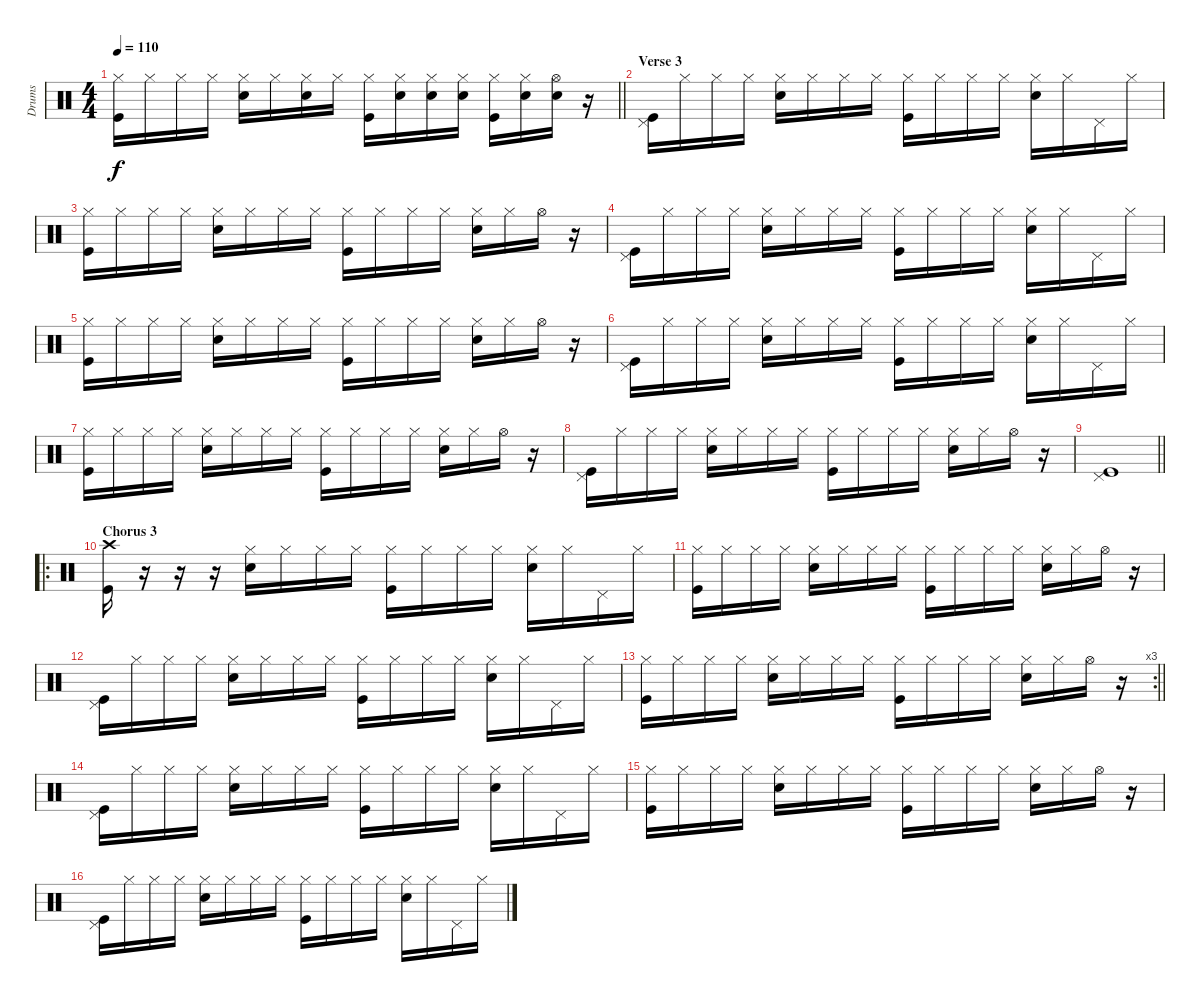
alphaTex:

\track ("Drums" "Drums") {instrument percussion}
\staff {score}
\articulation defaults
\ts (4 4)
\tempo 110
\clef neutral
\barLineRight lightlight
\ks c
("Hi-Hat (closed)" "Kick (hit)").16{dy f} "Hi-Hat (closed)".16 "Hi-Hat (closed)".16 "Hi-Hat (closed)".16 ("Hi-Hat (closed)" "Snare (hit) 2").16 "Hi-Hat (closed)".16 ("Hi-Hat (closed)" "Snare (hit) 2").16 "Hi-Hat (closed)".16 ("Hi-Hat (closed)" "Kick (hit)").16 ("Hi-Hat (closed)" "Snare (hit) 2").16 ("Hi-Hat (closed)" "Snare (hit) 2").16 ("Hi-Hat (closed)" "Snare (hit) 2").16 ("Hi-Hat (closed)" "Kick (hit)").16 ("Hi-Hat (closed)" "Snare (hit) 2").16 ("Hi-Hat (open)" "Snare (hit) 2").16 r.16 |
\section ("" "Verse 3")
("Pedal Hi-Hat (hit)" "Kick (hit)").16 "Hi-Hat (closed)".16 "Hi-Hat (closed)".16 "Hi-Hat (closed)".16 ("Hi-Hat (closed)" "Snare (hit) 2").16 "Hi-Hat (closed)".16 "Hi-Hat (closed)".16 "Hi-Hat (closed)".16 ("Hi-Hat (closed)" "Kick (hit)").16 "Hi-Hat (closed)".16 "Hi-Hat (closed)".16 "Hi-Hat (closed)".16 ("Hi-Hat (closed)" "Snare (hit) 2").16 "Hi-Hat (closed)".16 "Pedal Hi-Hat (hit)".16 "Hi-Hat (closed)".16 |
("Hi-Hat (closed)" "Kick (hit)").16 "Hi-Hat (closed)".16 "Hi-Hat (closed)".16 "Hi-Hat (closed)".16 ("Hi-Hat (closed)" "Snare (hit) 2").16 "Hi-Hat (closed)".16 "Hi-Hat (closed)".16 "Hi-Hat (closed)".16 ("Hi-Hat (closed)" "Kick (hit)").16 "Hi-Hat (closed)".16 "Hi-Hat (closed)".16 "Hi-Hat (closed)".16 ("Hi-Hat (closed)" "Snare (hit) 2").16 "Hi-Hat (closed)".16 "Hi-Hat (open)".16 r.16 |
("Pedal Hi-Hat (hit)" "Kick (hit)").16 "Hi-Hat (closed)".16 "Hi-Hat (closed)".16 "Hi-Hat (closed)".16 ("Hi-Hat (closed)" "Snare (hit) 2").16 "Hi-Hat (closed)".16 "Hi-Hat (closed)".16 "Hi-Hat (closed)".16 ("Hi-Hat (closed)" "Kick (hit)").16 "Hi-Hat (closed)".16 "Hi-Hat (closed)".16 "Hi-Hat (closed)".16 ("Hi-Hat (closed)" "Snare (hit) 2").16 "Hi-Hat (closed)".16 "Pedal Hi-Hat (hit)".16 "Hi-Hat (closed)".16 |
("Hi-Hat (closed)" "Kick (hit)").16 "Hi-Hat (closed)".16 "Hi-Hat (closed)".16 "Hi-Hat (closed)".16 ("Hi-Hat (closed)" "Snare (hit) 2").16 "Hi-Hat (closed)".16 "Hi-Hat (closed)".16 "Hi-Hat (closed)".16 ("Hi-Hat (closed)" "Kick (hit)").16 "Hi-Hat (closed)".16 "Hi-Hat (closed)".16 "Hi-Hat (closed)".16 ("Hi-Hat (closed)" "Snare (hit) 2").16 "Hi-Hat (closed)".16 "Hi-Hat (open)".16 r.16 |
("Pedal Hi-Hat (hit)" "Kick (hit)").16 "Hi-Hat (closed)".16 "Hi-Hat (closed)".16 "Hi-Hat (closed)".16 ("Hi-Hat (closed)" "Snare (hit) 2").16 "Hi-Hat (closed)".16 "Hi-Hat (closed)".16 "Hi-Hat (closed)".16 ("Hi-Hat (closed)" "Kick (hit)").16 "Hi-Hat (closed)".16 "Hi-Hat (closed)".16 "Hi-Hat (closed)".16 ("Hi-Hat (closed)" "Snare (hit) 2").16 "Hi-Hat (closed)".16 "Pedal Hi-Hat (hit)".16 "Hi-Hat (closed)".16 |
("Hi-Hat (closed)" "Kick (hit)").16 "Hi-Hat (closed)".16 "Hi-Hat (closed)".16 "Hi-Hat (closed)".16 ("Hi-Hat (closed)" "Snare (hit) 2").16 "Hi-Hat (closed)".16 "Hi-Hat (closed)".16 "Hi-Hat (closed)".16 ("Hi-Hat (closed)" "Kick (hit)").16 "Hi-Hat (closed)".16 "Hi-Hat (closed)".16 "Hi-Hat (closed)".16 ("Hi-Hat (closed)" "Snare (hit) 2").16 "Hi-Hat (closed)".16 "Hi-Hat (open)".16 r.16 |
("Pedal Hi-Hat (hit)" "Kick (hit)").16 "Hi-Hat (closed)".16 "Hi-Hat (closed)".16 "Hi-Hat (closed)".16 ("Hi-Hat (closed)" "Snare (hit) 2").16 "Hi-Hat (closed)".16 "Hi-Hat (closed)".16 "Hi-Hat (closed)".16 ("Hi-Hat (closed)" "Kick (hit)").16 "Hi-Hat (closed)".16 "Hi-Hat (closed)".16 "Hi-Hat (closed)".16 ("Hi-Hat (closed)" "Snare (hit) 2").16 "Hi-Hat (closed)".16 "Hi-Hat (open)".16 r.16 |
\barLineRight lightlight
("Pedal Hi-Hat (hit)" "Kick (hit)").1 |
\ro
\section ("" "Chorus 3")
("Crash high (hit)" "Kick (hit)").16 r.16 r.16 r.16 ("Hi-Hat (closed)" "Snare (hit) 2").16 "Hi-Hat (closed)".16 "Hi-Hat (closed)".16 "Hi-Hat (closed)".16 ("Hi-Hat (closed)" "Kick (hit)").16 "Hi-Hat (closed)".16 "Hi-Hat (closed)".16 "Hi-Hat (closed)".16 ("Hi-Hat (closed)" "Snare (hit) 2").16 "Hi-Hat (closed)".16 "Pedal Hi-Hat (hit)".16 "Hi-Hat (closed)".16 |
("Hi-Hat (closed)" "Kick (hit)").16 "Hi-Hat (closed)".16 "Hi-Hat (closed)".16 "Hi-Hat (closed)".16 ("Hi-Hat (closed)" "Snare (hit) 2").16 "Hi-Hat (closed)".16 "Hi-Hat (closed)".16 "Hi-Hat (closed)".16 ("Hi-Hat (closed)" "Kick (hit)").16 "Hi-Hat (closed)".16 "Hi-Hat (closed)".16 "Hi-Hat (closed)".16 ("Hi-Hat (closed)" "Snare (hit) 2").16 "Hi-Hat (closed)".16 "Hi-Hat (open)".16 r.16 |
("Pedal Hi-Hat (hit)" "Kick (hit)").16 "Hi-Hat (closed)".16 "Hi-Hat (closed)".16 "Hi-Hat (closed)".16 ("Hi-Hat (closed)" "Snare (hit) 2").16 "Hi-Hat (closed)".16 "Hi-Hat (closed)".16 "Hi-Hat (closed)".16 ("Hi-Hat (closed)" "Kick (hit)").16 "Hi-Hat (closed)".16 "Hi-Hat (closed)".16 "Hi-Hat (closed)".16 ("Hi-Hat (closed)" "Snare (hit) 2").16 "Hi-Hat (closed)".16 "Pedal Hi-Hat (hit)".16 "Hi-Hat (closed)".16 |
\rc 3
\barLineRight lightlight
("Hi-Hat (closed)" "Kick (hit)").16 "Hi-Hat (closed)".16 "Hi-Hat (closed)".16 "Hi-Hat (closed)".16 ("Hi-Hat (closed)" "Snare (hit) 2").16 "Hi-Hat (closed)".16 "Hi-Hat (closed)".16 "Hi-Hat (closed)".16 ("Hi-Hat (closed)" "Kick (hit)").16 "Hi-Hat (closed)".16 "Hi-Hat (closed)".16 "Hi-Hat (closed)".16 ("Hi-Hat (closed)" "Snare (hit) 2").16 "Hi-Hat (closed)".16 "Hi-Hat (open)".16 r.16 |
("Pedal Hi-Hat (hit)" "Kick (hit)").16 "Hi-Hat (closed)".16 "Hi-Hat (closed)".16 "Hi-Hat (closed)".16 ("Hi-Hat (closed)" "Snare (hit) 2").16 "Hi-Hat (closed)".16 "Hi-Hat (closed)".16 "Hi-Hat (closed)".16 ("Hi-Hat (closed)" "Kick (hit)").16 "Hi-Hat (closed)".16 "Hi-Hat (closed)".16 "Hi-Hat (closed)".16 ("Hi-Hat (closed)" "Snare (hit) 2").16 "Hi-Hat (closed)".16 "Pedal Hi-Hat (hit)".16 "Hi-Hat (closed)".16 |
("Hi-Hat (closed)" "Kick (hit)").16 "Hi-Hat (closed)".16 "Hi-Hat (closed)".16 "Hi-Hat (closed)".16 ("Hi-Hat (closed)" "Snare (hit) 2").16 "Hi-Hat (closed)".16 "Hi-Hat (closed)".16 "Hi-Hat (closed)".16 ("Hi-Hat (closed)" "Kick (hit)").16 "Hi-Hat (closed)".16 "Hi-Hat (closed)".16 "Hi-Hat (closed)".16 ("Hi-Hat (closed)" "Snare (hit) 2").16 "Hi-Hat (closed)".16 "Hi-Hat (open)".16 r.16 |
("Pedal Hi-Hat (hit)" "Kick (hit)").16 "Hi-Hat (closed)".16 "Hi-Hat (closed)".16 "Hi-Hat (closed)".16 ("Hi-Hat (closed)" "Snare (hit) 2").16 "Hi-Hat (closed)".16 "Hi-Hat (closed)".16 "Hi-Hat (closed)".16 ("Hi-Hat (closed)" "Kick (hit)").16 "Hi-Hat (closed)".16 "Hi-Hat (closed)".16 "Hi-Hat (closed)".16 ("Hi-Hat (closed)" "Snare (hit) 2").16 "Hi-Hat (closed)".16 "Pedal Hi-Hat (hit)".16 "Hi-Hat (closed)".16
